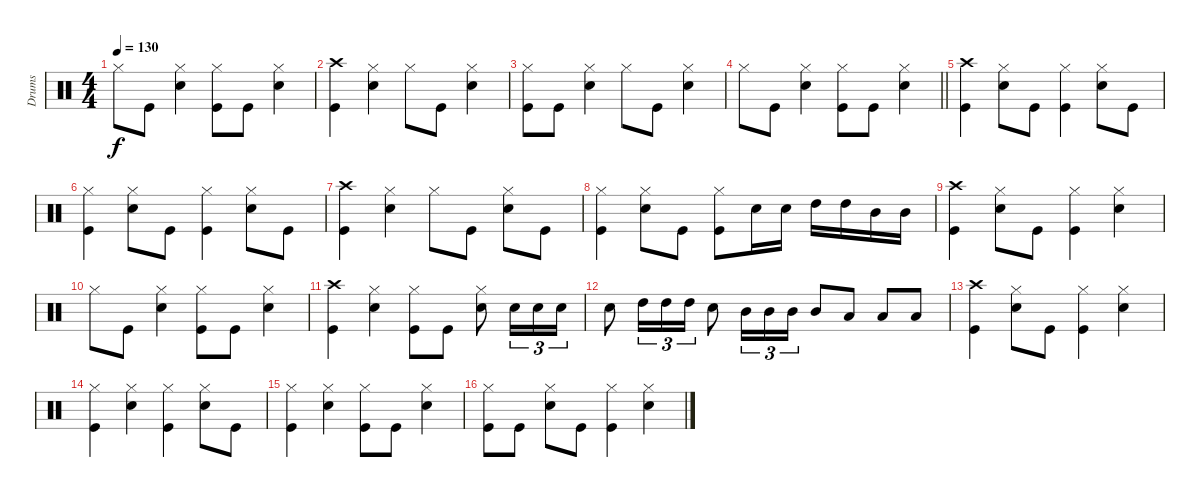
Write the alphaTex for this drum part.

\track ("Drums" "Drums") {instrument percussion}
\staff {score}
\articulation defaults
\ts (4 4)
\tempo 130
\clef neutral
\ks c "Hi-Hat (closed)".8{dy f} "Kick (hit)".8
("Hi-Hat (closed)" "Snare (hit) 2").4 ("Hi-Hat (closed)" "Kick (hit)").8 "Kick (hit)".8 ("Hi-Hat (closed)" "Snare (hit) 2").4 |
("Crash high (hit)" "Kick (hit)").4 ("Hi-Hat (closed)" "Snare (hit) 2").4 "Hi-Hat (closed)".8 "Kick (hit)".8 ("Hi-Hat (closed)" "Snare (hit) 2").4 |
("Hi-Hat (closed)" "Kick (hit)").8 "Kick (hit)".8 ("Hi-Hat (closed)" "Snare (hit) 2").4 "Hi-Hat (closed)".8 "Kick (hit)".8 ("Hi-Hat (closed)" "Snare (hit) 2").4 |
\barLineRight lightlight "Hi-Hat (closed)".8 "Kick (hit)".8
("Hi-Hat (closed)" "Snare (hit) 2").4 ("Hi-Hat (closed)" "Kick (hit)").8 "Kick (hit)".8 ("Hi-Hat (closed)" "Snare (hit) 2").4 |
("Crash high (hit)" "Kick (hit)").4 ("Hi-Hat (closed)" "Snare (hit) 2").8 "Kick (hit)".8 ("Hi-Hat (closed)" "Kick (hit)").4 ("Hi-Hat (closed)" "Snare (hit) 2").8 "Kick (hit)".8 |
("Hi-Hat (closed)" "Kick (hit)").4 ("Hi-Hat (closed)" "Snare (hit) 2").8 "Kick (hit)".8 ("Hi-Hat (closed)" "Kick (hit)").4 ("Hi-Hat (closed)" "Snare (hit) 2").8 "Kick (hit)".8 |
("Crash high (hit)" "Kick (hit)").4 ("Hi-Hat (closed)" "Snare (hit) 2").4 "Hi-Hat (closed)".8 "Kick (hit)".8 ("Hi-Hat (closed)" "Snare (hit) 2").8 "Kick (hit)".8 |
("Hi-Hat (closed)" "Kick (hit)").4 ("Hi-Hat (closed)" "Snare (hit) 2").8 "Kick (hit)".8 ("Hi-Hat (closed)" "Kick (hit)").8 "Snare (hit) 2".16 "Snare (hit) 2".16 "High Tom (hit)".16 "High Tom (hit)".16 "Mid Tom (hit)".16 "Mid Tom (hit)".16 |
("Crash high (hit)" "Kick (hit)").4 ("Hi-Hat (closed)" "Snare (hit) 2").8 "Kick (hit)".8 ("Hi-Hat (closed)" "Kick (hit)").4 ("Hi-Hat (closed)" "Snare (hit) 2").4 |
"Hi-Hat (closed)".8 "Kick (hit)".8 ("Hi-Hat (closed)" "Snare (hit) 2").4 ("Hi-Hat (closed)" "Kick (hit)").8 "Kick (hit)".8 ("Hi-Hat (closed)" "Snare (hit) 2").4 |
("Crash high (hit)" "Kick (hit)").4 ("Hi-Hat (closed)" "Snare (hit) 2").4 ("Hi-Hat (closed)" "Kick (hit)").8 "Kick (hit)".8 ("Hi-Hat (closed)" "Snare (hit) 2").8 "Snare (hit) 2".16{tu (3 2)} "Snare (hit) 2".16{tu (3 2)} "Snare (hit) 2".16{tu (3 2)} |
"Snare (hit) 2".8 "High Tom (hit)".16{tu (3 2)} "High Tom (hit)".16{tu (3 2)} "High Tom (hit)".16{tu (3 2)} "Snare (hit) 2".8 "Mid Tom (hit)".16{tu (3 2)} "Mid Tom (hit)".16{tu (3 2)} "Mid Tom (hit)".16{tu (3 2)} "Mid Tom (hit)".8 "Low Tom (hit)".8 "Low Tom (hit)".8 "Low Tom (hit)".8 |
("Crash high (hit)" "Kick (hit)").4 ("Hi-Hat (closed)" "Snare (hit) 2").8 "Kick (hit)".8 ("Hi-Hat (closed)" "Kick (hit)").4 ("Hi-Hat (closed)" "Snare (hit) 2").4 |
("Hi-Hat (closed)" "Kick (hit)").4 ("Hi-Hat (closed)" "Snare (hit) 2").4 ("Hi-Hat (closed)" "Kick (hit)").4 ("Hi-Hat (closed)" "Snare (hit) 2").8 "Kick (hit)".8 |
("Hi-Hat (closed)" "Kick (hit)").4 ("Hi-Hat (closed)" "Snare (hit) 2").4 ("Hi-Hat (closed)" "Kick (hit)").8 "Kick (hit)".8 ("Hi-Hat (closed)" "Snare (hit) 2").4 |
("Hi-Hat (closed)" "Kick (hit)").8 "Kick (hit)".8 ("Hi-Hat (closed)" "Snare (hit) 2").8 "Kick (hit)".8 ("Hi-Hat (closed)" "Kick (hit)").4 ("Hi-Hat (closed)" "Snare (hit) 2").4
